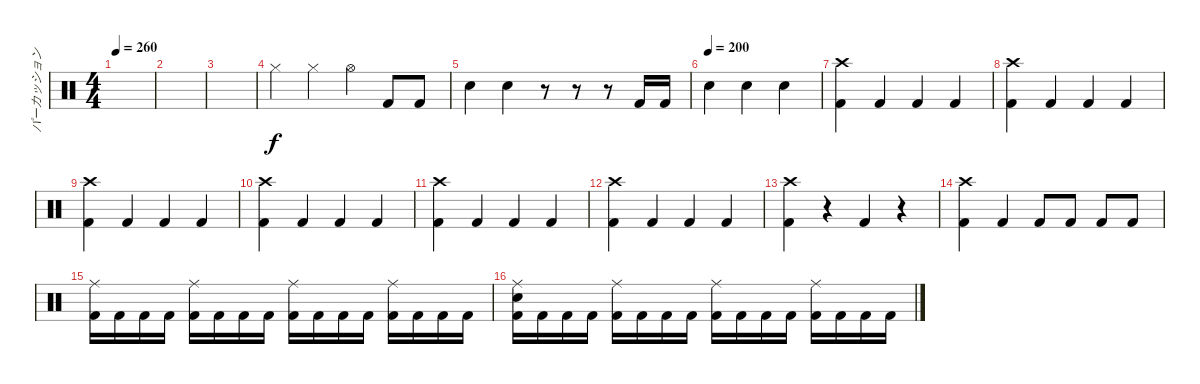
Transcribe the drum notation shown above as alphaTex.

\track ("パーカッション" "パーカッション") {instrument percussion}
\staff {score}
\articulation defaults
\ts (4 4)
\tempo 260
\clef neutral
\ks c
|
|
|
"Hi-Hat (closed)".4 "Hi-Hat (closed)".4 "Hi-Hat (open)".4 "Kick (hit) 2".8 "Kick (hit) 2".8 |
"Snare (hit) 2".4 "Snare (hit) 2".4 r.8 r.8 r.8 "Kick (hit) 2".16 "Kick (hit) 2".16 |
\tempo (200)
"Snare (hit) 2".4 "Snare (hit) 2".4 "Snare (hit) 2".4 |
("Crash high (hit)" "Kick (hit) 2").4 "Kick (hit) 2".4 "Kick (hit) 2".4 "Kick (hit) 2".4 |
("Crash high (hit)" "Kick (hit) 2").4 "Kick (hit) 2".4 "Kick (hit) 2".4 "Kick (hit) 2".4 |
("Crash high (hit)" "Kick (hit) 2").4 "Kick (hit) 2".4 "Kick (hit) 2".4 "Kick (hit) 2".4 |
("Crash high (hit)" "Kick (hit) 2").4 "Kick (hit) 2".4 "Kick (hit) 2".4 "Kick (hit) 2".4 |
("Crash high (hit)" "Kick (hit) 2").4 "Kick (hit) 2".4 "Kick (hit) 2".4 "Kick (hit) 2".4 |
("Crash high (hit)" "Kick (hit) 2").4 "Kick (hit) 2".4 "Kick (hit) 2".4 "Kick (hit) 2".4 |
("Crash high (hit)" "Kick (hit) 2").4 r.4 "Kick (hit) 2".4 r.4 |
("Crash high (hit)" "Kick (hit) 2").4 "Kick (hit) 2".4 "Kick (hit) 2".8 "Kick (hit) 2".8 "Kick (hit) 2".8 "Kick (hit) 2".8 |
("Ride (middle)" "Kick (hit) 2").16 "Kick (hit) 2".16 "Kick (hit) 2".16 "Kick (hit) 2".16 ("Ride (middle)" "Kick (hit) 2").16 "Kick (hit) 2".16 "Kick (hit) 2".16 "Kick (hit) 2".16 ("Ride (middle)" "Kick (hit) 2").16 "Kick (hit) 2".16 "Kick (hit) 2".16 "Kick (hit) 2".16 ("Ride (middle)" "Kick (hit) 2").16 "Kick (hit) 2".16 "Kick (hit) 2".16 "Kick (hit) 2".16 |
("Snare (hit) 2" "Ride (middle)" "Kick (hit) 2").16 "Kick (hit) 2".16 "Kick (hit) 2".16 "Kick (hit) 2".16 ("Ride (middle)" "Kick (hit) 2").16 "Kick (hit) 2".16 "Kick (hit) 2".16 "Kick (hit) 2".16 ("Ride (middle)" "Kick (hit) 2").16 "Kick (hit) 2".16 "Kick (hit) 2".16 "Kick (hit) 2".16 ("Ride (middle)" "Kick (hit) 2").16 "Kick (hit) 2".16 "Kick (hit) 2".16 "Kick (hit) 2".16
